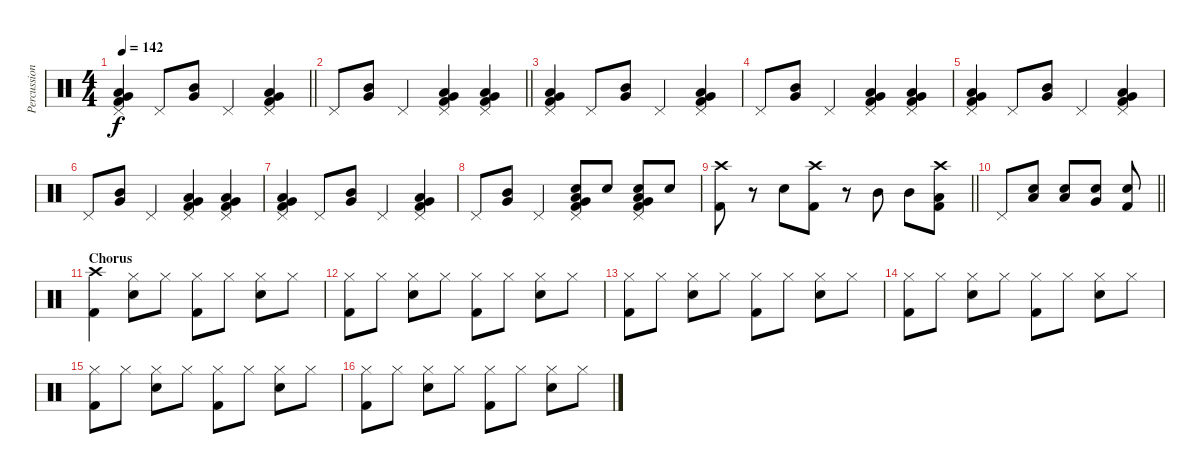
\track ("Percussion" "Percussion") {instrument percussion}
\staff {score}
\articulation defaults
\ts (4 4)
\tempo 142
\clef neutral
\barLineRight lightlight
\ks c
("Pedal Hi-Hat (hit)" "Low Tom (hit)" "Very Low Tom (hit)" "Kick (hit) 2").4{dy f} "Pedal Hi-Hat (hit)".8 ("Mid Tom (hit)" "Very Low Tom (hit)").8 "Pedal Hi-Hat (hit)".4 ("Pedal Hi-Hat (hit)" "Low Tom (hit)" "Very Low Tom (hit)" "Kick (hit) 2").4 |
\barLineRight lightlight "Pedal Hi-Hat (hit)".8
("Mid Tom (hit)" "Very Low Tom (hit)").8 "Pedal Hi-Hat (hit)".4 ("Pedal Hi-Hat (hit)" "Low Tom (hit)" "Very Low Tom (hit)" "Kick (hit) 2").4 ("Pedal Hi-Hat (hit)" "Very Low Tom (hit)" "Low Floor Tom (hit)" "Kick (hit) 2").4 |
("Pedal Hi-Hat (hit)" "Low Tom (hit)" "Very Low Tom (hit)" "Kick (hit) 2").4 "Pedal Hi-Hat (hit)".8 ("Mid Tom (hit)" "Very Low Tom (hit)").8 "Pedal Hi-Hat (hit)".4 ("Pedal Hi-Hat (hit)" "Low Tom (hit)" "Very Low Tom (hit)" "Kick (hit) 2").4 |
"Pedal Hi-Hat (hit)".8 ("Mid Tom (hit)" "Very Low Tom (hit)").8 "Pedal Hi-Hat (hit)".4 ("Pedal Hi-Hat (hit)" "Low Tom (hit)" "Very Low Tom (hit)" "Kick (hit) 2").4 ("Pedal Hi-Hat (hit)" "Very Low Tom (hit)" "Low Floor Tom (hit)" "Kick (hit) 2").4 |
("Pedal Hi-Hat (hit)" "Low Tom (hit)" "Very Low Tom (hit)" "Kick (hit) 2").4 "Pedal Hi-Hat (hit)".8 ("Mid Tom (hit)" "Very Low Tom (hit)").8 "Pedal Hi-Hat (hit)".4 ("Pedal Hi-Hat (hit)" "Low Tom (hit)" "Very Low Tom (hit)" "Kick (hit) 2").4 |
"Pedal Hi-Hat (hit)".8 ("Mid Tom (hit)" "Very Low Tom (hit)").8 "Pedal Hi-Hat (hit)".4 ("Pedal Hi-Hat (hit)" "Low Tom (hit)" "Very Low Tom (hit)" "Kick (hit) 2").4 ("Pedal Hi-Hat (hit)" "Very Low Tom (hit)" "Low Floor Tom (hit)" "Kick (hit) 2").4 |
("Pedal Hi-Hat (hit)" "Low Tom (hit)" "Very Low Tom (hit)" "Kick (hit) 2").4 "Pedal Hi-Hat (hit)".8 ("Mid Tom (hit)" "Very Low Tom (hit)").8 "Pedal Hi-Hat (hit)".4 ("Pedal Hi-Hat (hit)" "Low Tom (hit)" "Very Low Tom (hit)" "Kick (hit) 2").4 |
"Pedal Hi-Hat (hit)".8 ("Mid Tom (hit)" "Very Low Tom (hit)").8 "Pedal Hi-Hat (hit)".4 ("Pedal Hi-Hat (hit)" "Snare (hit) 2" "Low Tom (hit)" "Very Low Tom (hit)" "Kick (hit) 2").8 "Snare (hit) 2".8 ("Pedal Hi-Hat (hit)" "Snare (hit) 2" "Very Low Tom (hit)" "Low Floor Tom (hit)" "Kick (hit) 2").8 "Snare (hit) 2".8 |
\barLineRight lightlight
("Crash high (hit)" "Kick (hit) 2").8 r.8 "Snare (hit) 2".8 ("Crash high (hit)" "Kick (hit) 2").8 r.8 "Mid Tom (hit)".8 "Mid Tom (hit)".8 ("Crash high (hit)" "Low Tom (hit)" "Kick (hit) 2").8 |
\barLineRight lightlight "Pedal Hi-Hat (hit)".8
("Snare (hit) 2" "Low Tom (hit)").8 ("Snare (hit) 2" "Low Tom (hit)").8 ("Snare (hit) 2" "Very Low Tom (hit)").8 ("Snare (hit) 2" "Kick (hit) 2").8 |
\section ("" "Chorus")
("Crash high (hit)" "Kick (hit) 2").4 ("Hi-Hat (closed)" "Snare (hit) 2").8 "Hi-Hat (closed)".8 ("Hi-Hat (closed)" "Kick (hit) 2").8 "Hi-Hat (closed)".8 ("Hi-Hat (closed)" "Snare (hit) 2").8 "Hi-Hat (closed)".8 |
("Hi-Hat (closed)" "Kick (hit) 2").8 "Hi-Hat (closed)".8 ("Hi-Hat (closed)" "Snare (hit) 2").8 "Hi-Hat (closed)".8 ("Hi-Hat (closed)" "Kick (hit) 2").8 "Hi-Hat (closed)".8 ("Hi-Hat (closed)" "Snare (hit) 2").8 "Hi-Hat (closed)".8 |
("Hi-Hat (closed)" "Kick (hit) 2").8 "Hi-Hat (closed)".8 ("Hi-Hat (closed)" "Snare (hit) 2").8 "Hi-Hat (closed)".8 ("Hi-Hat (closed)" "Kick (hit) 2").8 "Hi-Hat (closed)".8 ("Hi-Hat (closed)" "Snare (hit) 2").8 "Hi-Hat (closed)".8 |
("Hi-Hat (closed)" "Kick (hit) 2").8 "Hi-Hat (closed)".8 ("Hi-Hat (closed)" "Snare (hit) 2").8 "Hi-Hat (closed)".8 ("Hi-Hat (closed)" "Kick (hit) 2").8 "Hi-Hat (closed)".8 ("Hi-Hat (closed)" "Snare (hit) 2").8 "Hi-Hat (closed)".8 |
("Hi-Hat (closed)" "Kick (hit) 2").8 "Hi-Hat (closed)".8 ("Hi-Hat (closed)" "Snare (hit) 2").8 "Hi-Hat (closed)".8 ("Hi-Hat (closed)" "Kick (hit) 2").8 "Hi-Hat (closed)".8 ("Hi-Hat (closed)" "Snare (hit) 2").8 "Hi-Hat (closed)".8 |
("Hi-Hat (closed)" "Kick (hit) 2").8 "Hi-Hat (closed)".8 ("Hi-Hat (closed)" "Snare (hit) 2").8 "Hi-Hat (closed)".8 ("Hi-Hat (closed)" "Kick (hit) 2").8 "Hi-Hat (closed)".8 ("Hi-Hat (closed)" "Snare (hit) 2").8 "Hi-Hat (closed)".8
